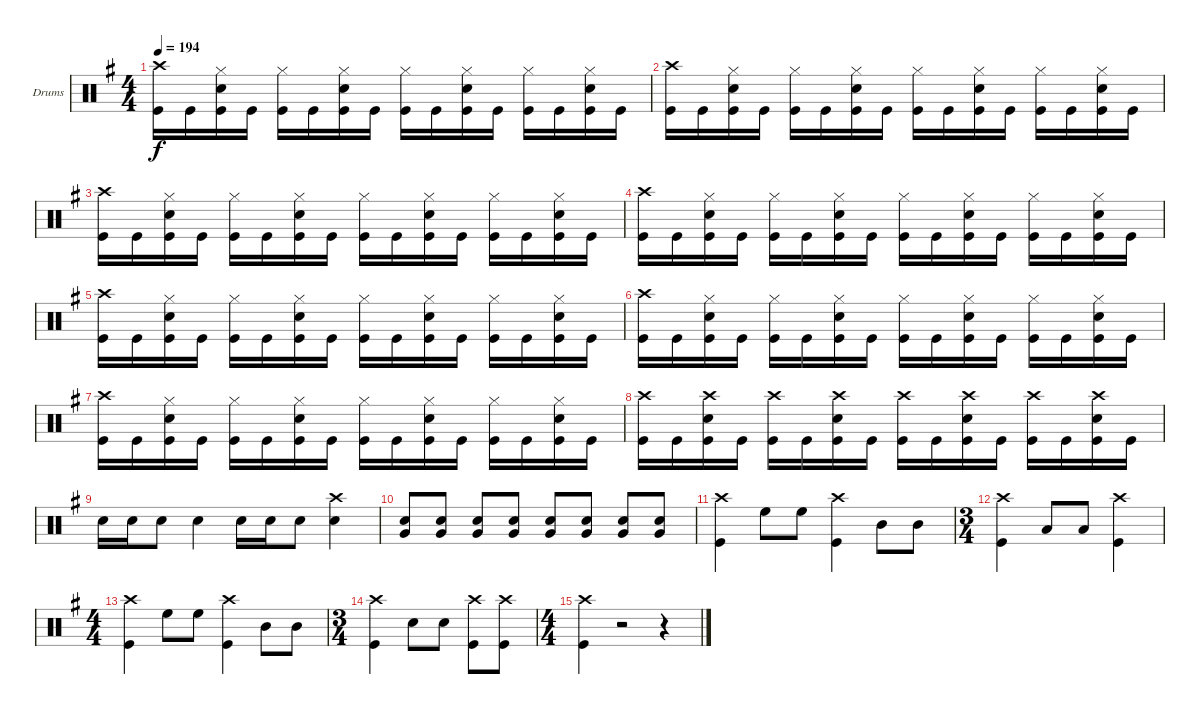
\bracketExtendMode groupsimilarinstruments
\firstSystemTrackNameOrientation horizontal
\otherSystemsTrackNameOrientation horizontal
\track ("Drumkit" "Drums") {instrument percussion}
\staff {score}
\articulation defaults
\ts (4 4)
\tempo 194
\clef neutral
\scale
1.04288
\ks g
("Crash high (hit)" "Kick (hit)").16{dy f} "Kick (hit)".16 ("Hi-Hat (closed)" "Snare (hit) 2" "Kick (hit)").16 "Kick (hit)".16 ("Hi-Hat (closed)" "Kick (hit)").16 "Kick (hit)".16 ("Hi-Hat (closed)" "Snare (hit) 2" "Kick (hit)").16 "Kick (hit)".16 ("Hi-Hat (closed)" "Kick (hit)").16 "Kick (hit)".16 ("Hi-Hat (closed)" "Snare (hit) 2" "Kick (hit)").16 "Kick (hit)".16 ("Hi-Hat (closed)" "Kick (hit)").16 "Kick (hit)".16 ("Hi-Hat (closed)" "Snare (hit) 2" "Kick (hit)").16 "Kick (hit)".16 |
\scale
0.957125 ("Crash high (hit)" "Kick (hit)").16 "Kick (hit)".16 ("Hi-Hat (closed)" "Snare (hit) 2" "Kick (hit)").16 "Kick (hit)".16 ("Hi-Hat (closed)" "Kick (hit)").16 "Kick (hit)".16 ("Hi-Hat (closed)" "Snare (hit) 2" "Kick (hit)").16 "Kick (hit)".16 ("Hi-Hat (closed)" "Kick (hit)").16 "Kick (hit)".16 ("Hi-Hat (closed)" "Snare (hit) 2" "Kick (hit)").16 "Kick (hit)".16 ("Hi-Hat (closed)" "Kick (hit)").16 "Kick (hit)".16 ("Hi-Hat (closed)" "Snare (hit) 2" "Kick (hit)").16 "Kick (hit)".16 |
\scale
1.04288 ("Crash high (hit)" "Kick (hit)").16 "Kick (hit)".16 ("Hi-Hat (closed)" "Snare (hit) 2" "Kick (hit)").16 "Kick (hit)".16 ("Hi-Hat (closed)" "Kick (hit)").16 "Kick (hit)".16 ("Hi-Hat (closed)" "Snare (hit) 2" "Kick (hit)").16 "Kick (hit)".16 ("Hi-Hat (closed)" "Kick (hit)").16 "Kick (hit)".16 ("Hi-Hat (closed)" "Snare (hit) 2" "Kick (hit)").16 "Kick (hit)".16 ("Hi-Hat (closed)" "Kick (hit)").16 "Kick (hit)".16 ("Hi-Hat (closed)" "Snare (hit) 2" "Kick (hit)").16 "Kick (hit)".16 |
\scale
0.957125 ("Crash high (hit)" "Kick (hit)").16 "Kick (hit)".16 ("Hi-Hat (closed)" "Snare (hit) 2" "Kick (hit)").16 "Kick (hit)".16 ("Hi-Hat (closed)" "Kick (hit)").16 "Kick (hit)".16 ("Hi-Hat (closed)" "Snare (hit) 2" "Kick (hit)").16 "Kick (hit)".16 ("Hi-Hat (closed)" "Kick (hit)").16 "Kick (hit)".16 ("Hi-Hat (closed)" "Snare (hit) 2" "Kick (hit)").16 "Kick (hit)".16 ("Hi-Hat (closed)" "Kick (hit)").16 "Kick (hit)".16 ("Hi-Hat (closed)" "Snare (hit) 2" "Kick (hit)").16 "Kick (hit)".16 |
\scale
1.04288 ("Crash high (hit)" "Kick (hit)").16 "Kick (hit)".16 ("Hi-Hat (closed)" "Snare (hit) 2" "Kick (hit)").16 "Kick (hit)".16 ("Hi-Hat (closed)" "Kick (hit)").16 "Kick (hit)".16 ("Hi-Hat (closed)" "Snare (hit) 2" "Kick (hit)").16 "Kick (hit)".16 ("Hi-Hat (closed)" "Kick (hit)").16 "Kick (hit)".16 ("Hi-Hat (closed)" "Snare (hit) 2" "Kick (hit)").16 "Kick (hit)".16 ("Hi-Hat (closed)" "Kick (hit)").16 "Kick (hit)".16 ("Hi-Hat (closed)" "Snare (hit) 2" "Kick (hit)").16 "Kick (hit)".16 |
\scale
0.957125 ("Crash high (hit)" "Kick (hit)").16 "Kick (hit)".16 ("Hi-Hat (closed)" "Snare (hit) 2" "Kick (hit)").16 "Kick (hit)".16 ("Hi-Hat (closed)" "Kick (hit)").16 "Kick (hit)".16 ("Hi-Hat (closed)" "Snare (hit) 2" "Kick (hit)").16 "Kick (hit)".16 ("Hi-Hat (closed)" "Kick (hit)").16 "Kick (hit)".16 ("Hi-Hat (closed)" "Snare (hit) 2" "Kick (hit)").16 "Kick (hit)".16 ("Hi-Hat (closed)" "Kick (hit)").16 "Kick (hit)".16 ("Hi-Hat (closed)" "Snare (hit) 2" "Kick (hit)").16 "Kick (hit)".16 |
\scale
1.04288 ("Crash high (hit)" "Kick (hit)").16 "Kick (hit)".16 ("Hi-Hat (closed)" "Snare (hit) 2" "Kick (hit)").16 "Kick (hit)".16 ("Hi-Hat (closed)" "Kick (hit)").16 "Kick (hit)".16 ("Hi-Hat (closed)" "Snare (hit) 2" "Kick (hit)").16 "Kick (hit)".16 ("Hi-Hat (closed)" "Kick (hit)").16 "Kick (hit)".16 ("Hi-Hat (closed)" "Snare (hit) 2" "Kick (hit)").16 "Kick (hit)".16 ("Hi-Hat (closed)" "Kick (hit)").16 "Kick (hit)".16 ("Hi-Hat (closed)" "Snare (hit) 2" "Kick (hit)").16 "Kick (hit)".16 |
\scale
0.957125 ("Crash high (hit)" "Kick (hit)").16 "Kick (hit)".16 ("Crash high (hit)" "Snare (hit) 2" "Kick (hit)").16 "Kick (hit)".16 ("Crash high (hit)" "Kick (hit)").16 "Kick (hit)".16 ("Crash high (hit)" "Snare (hit) 2" "Kick (hit)").16 "Kick (hit)".16 ("Crash high (hit)" "Kick (hit)").16 "Kick (hit)".16 ("Crash high (hit)" "Snare (hit) 2" "Kick (hit)").16 "Kick (hit)".16 ("Crash high (hit)" "Kick (hit)").16 "Kick (hit)".16 ("Crash high (hit)" "Snare (hit) 2" "Kick (hit)").16 "Kick (hit)".16 |
\scale
1.04288 "Snare (hit) 2".16 "Snare (hit) 2".16 "Snare (hit) 2".8 "Snare (hit) 2".4 "Snare (hit) 2".16 "Snare (hit) 2".16 "Snare (hit) 2".8 ("Crash high (hit)" "Snare (hit) 2").4 |
\scale
0.957125 ("Very Low Tom (hit)" "Snare (hit) 2").8 ("Very Low Tom (hit)" "Snare (hit) 2").8 ("Very Low Tom (hit)" "Snare (hit) 2").8 ("Very Low Tom (hit)" "Snare (hit) 2").8 ("Very Low Tom (hit)" "Snare (hit) 2").8 ("Very Low Tom (hit)" "Snare (hit) 2").8 ("Very Low Tom (hit)" "Snare (hit) 2").8 ("Very Low Tom (hit)" "Snare (hit) 2").8 |
\scale
1.04288 ("Crash high (hit)" "Kick (hit)").4 "High Floor Tom (hit)".8 "High Floor Tom (hit)".8 ("Crash high (hit)" "Kick (hit)").4 "Mid Tom (hit)".8 "Mid Tom (hit)".8 |
\ts (3 4)
\scale
0.957125 ("Crash high (hit)" "Kick (hit)").4 "Low Tom (hit)".8 "Low Tom (hit)".8 ("Crash high (hit)" "Kick (hit)").4 |
\ts (4 4)
\scale
1.07314 ("Crash high (hit)" "Kick (hit)").4 "High Floor Tom (hit)".8 "High Floor Tom (hit)".8 ("Crash high (hit)" "Kick (hit)").4 "Mid Tom (hit)".8 "Mid Tom (hit)".8 |
\ts (3 4)
\scale
0.92686 ("Crash high (hit)" "Kick (hit)").4 "Snare (hit) 2".8 "Snare (hit) 2".8 ("Crash high (hit)" "Kick (hit)").8 ("Crash high (hit)" "Kick (hit)").8 |
\ts (4 4)
("Crash high (hit)" "Kick (hit)").4 r.2 r.4
